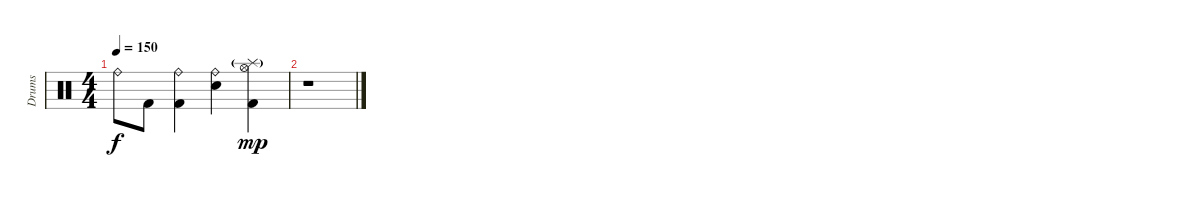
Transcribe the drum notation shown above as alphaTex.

\track ("Drums" "Drums") {instrument percussion}
\staff {score}
\articulation defaults
\ts (4 4)
\tempo 150
\clef neutral
\ks c "Ride (bell)".8{dy f} "Kick (hit) 2".8
("Ride (bell)" "Kick (hit) 2").4 ("Ride (bell)" "Electric Snare (hit)").4 ("Hi-Hat (open)" "Splash (hit)"{g} "Kick (hit) 2").4{dy mp} |
r.1
